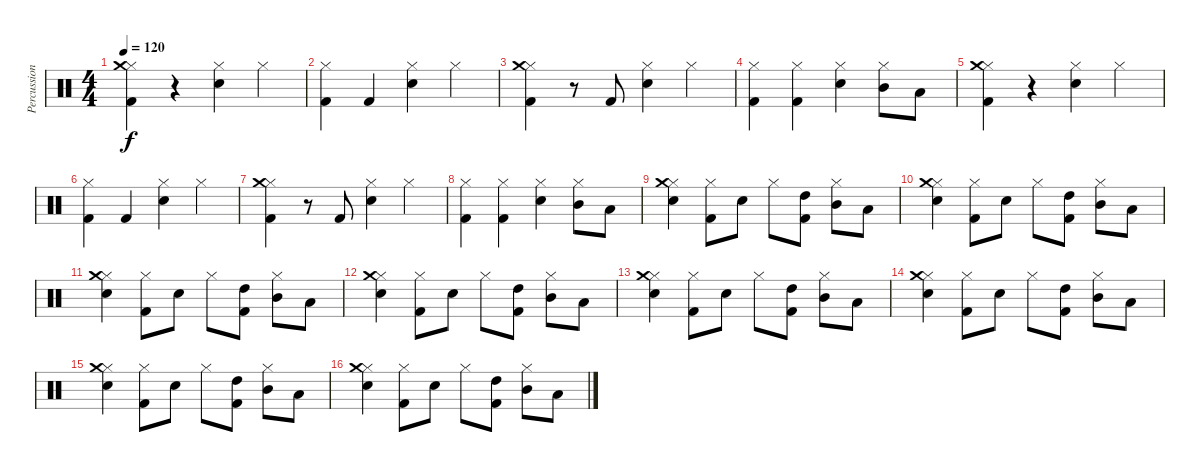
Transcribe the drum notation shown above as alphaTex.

\track ("Percussions" "Percussion") {instrument percussion}
\staff {score}
\articulation defaults
\ts (4 4)
\tempo 120
\clef neutral
\ks c
("Hi-Hat (closed)" "Crash medium (hit)" "Kick (hit) 2").4{dy f} r.4 ("Hi-Hat (closed)" "Electric Snare (hit)").4 "Hi-Hat (closed)".4 |
("Hi-Hat (closed)" "Kick (hit) 2").4 "Kick (hit) 2".4 ("Hi-Hat (closed)" "Electric Snare (hit)").4 "Hi-Hat (closed)".4 |
("Hi-Hat (closed)" "Crash medium (hit)" "Kick (hit) 2").4 r.8 "Kick (hit) 2".8 ("Hi-Hat (closed)" "Electric Snare (hit)").4 "Hi-Hat (closed)".4 |
("Hi-Hat (closed)" "Kick (hit) 2").4 ("Hi-Hat (closed)" "Kick (hit) 2").4 ("Hi-Hat (closed)" "Electric Snare (hit)").4 ("Hi-Hat (closed)" "Mid Tom (hit)").8 "Low Tom (hit)".8 |
("Hi-Hat (closed)" "Crash medium (hit)" "Kick (hit) 2").4 r.4 ("Hi-Hat (closed)" "Electric Snare (hit)").4 "Hi-Hat (closed)".4 |
("Hi-Hat (closed)" "Kick (hit) 2").4 "Kick (hit) 2".4 ("Hi-Hat (closed)" "Electric Snare (hit)").4 "Hi-Hat (closed)".4 |
("Hi-Hat (closed)" "Crash medium (hit)" "Kick (hit) 2").4 r.8 "Kick (hit) 2".8 ("Hi-Hat (closed)" "Electric Snare (hit)").4 "Hi-Hat (closed)".4 |
("Hi-Hat (closed)" "Kick (hit) 2").4 ("Hi-Hat (closed)" "Kick (hit) 2").4 ("Hi-Hat (closed)" "Electric Snare (hit)").4 ("Hi-Hat (closed)" "Mid Tom (hit)").8 "Low Tom (hit)".8 |
("Hi-Hat (closed)" "Crash medium (hit)" "Electric Snare (hit)").4 ("Hi-Hat (closed)" "Kick (hit) 2").8 "Electric Snare (hit)".8 "Hi-Hat (closed)".8 ("High Tom (hit)" "Kick (hit) 2").8 ("Hi-Hat (closed)" "Mid Tom (hit)").8 "Low Tom (hit)".8 |
("Hi-Hat (closed)" "Crash medium (hit)" "Electric Snare (hit)").4 ("Hi-Hat (closed)" "Kick (hit) 2").8 "Electric Snare (hit)".8 "Hi-Hat (closed)".8 ("High Tom (hit)" "Kick (hit) 2").8 ("Hi-Hat (closed)" "Mid Tom (hit)").8 "Low Tom (hit)".8 |
("Hi-Hat (closed)" "Crash medium (hit)" "Electric Snare (hit)").4 ("Hi-Hat (closed)" "Kick (hit) 2").8 "Electric Snare (hit)".8 "Hi-Hat (closed)".8 ("High Tom (hit)" "Kick (hit) 2").8 ("Hi-Hat (closed)" "Mid Tom (hit)").8 "Low Tom (hit)".8 |
("Hi-Hat (closed)" "Crash medium (hit)" "Electric Snare (hit)").4 ("Hi-Hat (closed)" "Kick (hit) 2").8 "Electric Snare (hit)".8 "Hi-Hat (closed)".8 ("High Tom (hit)" "Kick (hit) 2").8 ("Hi-Hat (closed)" "Mid Tom (hit)").8 "Low Tom (hit)".8 |
("Hi-Hat (closed)" "Crash medium (hit)" "Electric Snare (hit)").4 ("Hi-Hat (closed)" "Kick (hit) 2").8 "Electric Snare (hit)".8 "Hi-Hat (closed)".8 ("High Tom (hit)" "Kick (hit) 2").8 ("Hi-Hat (closed)" "Mid Tom (hit)").8 "Low Tom (hit)".8 |
("Hi-Hat (closed)" "Crash medium (hit)" "Electric Snare (hit)").4 ("Hi-Hat (closed)" "Kick (hit) 2").8 "Electric Snare (hit)".8 "Hi-Hat (closed)".8 ("High Tom (hit)" "Kick (hit) 2").8 ("Hi-Hat (closed)" "Mid Tom (hit)").8 "Low Tom (hit)".8 |
("Hi-Hat (closed)" "Crash medium (hit)" "Electric Snare (hit)").4 ("Hi-Hat (closed)" "Kick (hit) 2").8 "Electric Snare (hit)".8 "Hi-Hat (closed)".8 ("High Tom (hit)" "Kick (hit) 2").8 ("Hi-Hat (closed)" "Mid Tom (hit)").8 "Low Tom (hit)".8 |
("Hi-Hat (closed)" "Crash medium (hit)" "Electric Snare (hit)").4 ("Hi-Hat (closed)" "Kick (hit) 2").8 "Electric Snare (hit)".8 "Hi-Hat (closed)".8 ("High Tom (hit)" "Kick (hit) 2").8 ("Hi-Hat (closed)" "Mid Tom (hit)").8 "Low Tom (hit)".8
